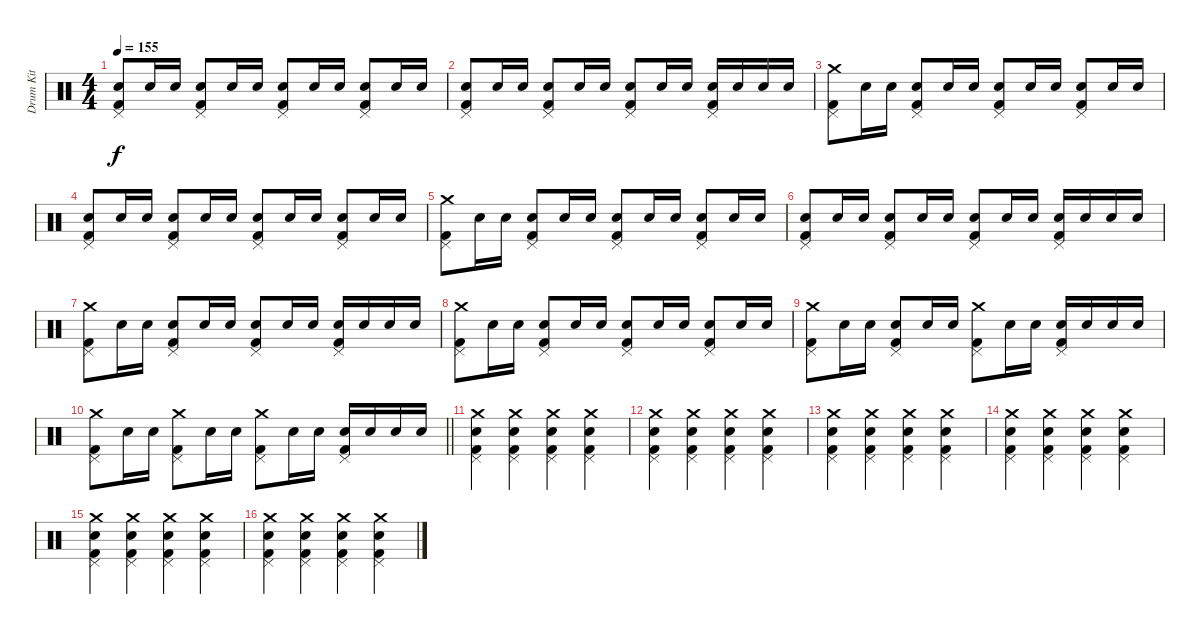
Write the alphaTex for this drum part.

\track ("Drum Kit" "Drum Kit") {instrument percussion}
\staff {score}
\articulation defaults
\ts (4 4)
\tempo 155
\clef neutral
\ks c
("Pedal Hi-Hat (hit)" "Snare (hit) 2" "Kick (hit) 2").8{dy f} "Snare (hit) 2".16 "Snare (hit) 2".16 ("Pedal Hi-Hat (hit)" "Snare (hit) 2" "Kick (hit) 2").8 "Snare (hit) 2".16 "Snare (hit) 2".16 ("Pedal Hi-Hat (hit)" "Snare (hit) 2" "Kick (hit) 2").8 "Snare (hit) 2".16 "Snare (hit) 2".16 ("Pedal Hi-Hat (hit)" "Snare (hit) 2" "Kick (hit) 2").8 "Snare (hit) 2".16 "Snare (hit) 2".16 |
("Pedal Hi-Hat (hit)" "Snare (hit) 2" "Kick (hit) 2").8 "Snare (hit) 2".16 "Snare (hit) 2".16 ("Pedal Hi-Hat (hit)" "Snare (hit) 2" "Kick (hit) 2").8 "Snare (hit) 2".16 "Snare (hit) 2".16 ("Pedal Hi-Hat (hit)" "Snare (hit) 2" "Kick (hit) 2").8 "Snare (hit) 2".16 "Snare (hit) 2".16 ("Pedal Hi-Hat (hit)" "Snare (hit) 2" "Kick (hit) 2").16 "Snare (hit) 2".16 "Snare (hit) 2".16 "Snare (hit) 2".16 |
("Crash medium (hit)" "Pedal Hi-Hat (hit)" "Kick (hit) 2").8 "Snare (hit) 2".16 "Snare (hit) 2".16 ("Pedal Hi-Hat (hit)" "Snare (hit) 2" "Kick (hit) 2").8 "Snare (hit) 2".16 "Snare (hit) 2".16 ("Pedal Hi-Hat (hit)" "Snare (hit) 2" "Kick (hit) 2").8 "Snare (hit) 2".16 "Snare (hit) 2".16 ("Pedal Hi-Hat (hit)" "Snare (hit) 2" "Kick (hit) 2").8 "Snare (hit) 2".16 "Snare (hit) 2".16 |
("Pedal Hi-Hat (hit)" "Snare (hit) 2" "Kick (hit) 2").8 "Snare (hit) 2".16 "Snare (hit) 2".16 ("Pedal Hi-Hat (hit)" "Snare (hit) 2" "Kick (hit) 2").8 "Snare (hit) 2".16 "Snare (hit) 2".16 ("Pedal Hi-Hat (hit)" "Snare (hit) 2" "Kick (hit) 2").8 "Snare (hit) 2".16 "Snare (hit) 2".16 ("Pedal Hi-Hat (hit)" "Snare (hit) 2" "Kick (hit) 2").8 "Snare (hit) 2".16 "Snare (hit) 2".16 |
("Crash medium (hit)" "Pedal Hi-Hat (hit)" "Kick (hit) 2").8 "Snare (hit) 2".16 "Snare (hit) 2".16 ("Pedal Hi-Hat (hit)" "Snare (hit) 2" "Kick (hit) 2").8 "Snare (hit) 2".16 "Snare (hit) 2".16 ("Pedal Hi-Hat (hit)" "Snare (hit) 2" "Kick (hit) 2").8 "Snare (hit) 2".16 "Snare (hit) 2".16 ("Pedal Hi-Hat (hit)" "Snare (hit) 2" "Kick (hit) 2").8 "Snare (hit) 2".16 "Snare (hit) 2".16 |
("Pedal Hi-Hat (hit)" "Snare (hit) 2" "Kick (hit) 2").8 "Snare (hit) 2".16 "Snare (hit) 2".16 ("Pedal Hi-Hat (hit)" "Snare (hit) 2" "Kick (hit) 2").8 "Snare (hit) 2".16 "Snare (hit) 2".16 ("Pedal Hi-Hat (hit)" "Snare (hit) 2" "Kick (hit) 2").8 "Snare (hit) 2".16 "Snare (hit) 2".16 ("Pedal Hi-Hat (hit)" "Snare (hit) 2" "Kick (hit) 2").16 "Snare (hit) 2".16 "Snare (hit) 2".16 "Snare (hit) 2".16 |
("Crash medium (hit)" "Pedal Hi-Hat (hit)" "Kick (hit) 2").8 "Snare (hit) 2".16 "Snare (hit) 2".16 ("Pedal Hi-Hat (hit)" "Snare (hit) 2" "Kick (hit) 2").8 "Snare (hit) 2".16 "Snare (hit) 2".16 ("Pedal Hi-Hat (hit)" "Snare (hit) 2" "Kick (hit) 2").8 "Snare (hit) 2".16 "Snare (hit) 2".16 ("Pedal Hi-Hat (hit)" "Snare (hit) 2" "Kick (hit) 2").16 "Snare (hit) 2".16 "Snare (hit) 2".16 "Snare (hit) 2".16 |
("Crash medium (hit)" "Pedal Hi-Hat (hit)" "Kick (hit) 2").8 "Snare (hit) 2".16 "Snare (hit) 2".16 ("Pedal Hi-Hat (hit)" "Snare (hit) 2" "Kick (hit) 2").8 "Snare (hit) 2".16 "Snare (hit) 2".16 ("Pedal Hi-Hat (hit)" "Snare (hit) 2" "Kick (hit) 2").8 "Snare (hit) 2".16 "Snare (hit) 2".16 ("Pedal Hi-Hat (hit)" "Snare (hit) 2" "Kick (hit) 2").8 "Snare (hit) 2".16 "Snare (hit) 2".16 |
("Crash medium (hit)" "Pedal Hi-Hat (hit)" "Kick (hit) 2").8 "Snare (hit) 2".16 "Snare (hit) 2".16 ("Pedal Hi-Hat (hit)" "Snare (hit) 2" "Kick (hit) 2").8 "Snare (hit) 2".16 "Snare (hit) 2".16 ("Crash medium (hit)" "Pedal Hi-Hat (hit)" "Kick (hit) 2").8 "Snare (hit) 2".16 "Snare (hit) 2".16 ("Pedal Hi-Hat (hit)" "Snare (hit) 2" "Kick (hit) 2").16 "Snare (hit) 2".16 "Snare (hit) 2".16 "Snare (hit) 2".16 |
\barLineRight lightlight
("Crash medium (hit)" "Pedal Hi-Hat (hit)" "Kick (hit) 2").8 "Snare (hit) 2".16 "Snare (hit) 2".16 ("Crash medium (hit)" "Pedal Hi-Hat (hit)" "Kick (hit) 2").8 "Snare (hit) 2".16 "Snare (hit) 2".16 ("Crash medium (hit)" "Pedal Hi-Hat (hit)" "Kick (hit) 2").8 "Snare (hit) 2".16 "Snare (hit) 2".16 ("Pedal Hi-Hat (hit)" "Snare (hit) 2" "Kick (hit) 2").16 "Snare (hit) 2".16 "Snare (hit) 2".16 "Snare (hit) 2".16 |
("Crash medium (hit)" "Pedal Hi-Hat (hit)" "Snare (hit) 2" "Kick (hit) 2").4{volume 11} ("Crash medium (hit)" "Pedal Hi-Hat (hit)" "Snare (hit) 2" "Kick (hit) 2").4 ("Crash medium (hit)" "Pedal Hi-Hat (hit)" "Snare (hit) 2" "Kick (hit) 2").4 ("Crash medium (hit)" "Pedal Hi-Hat (hit)" "Snare (hit) 2" "Kick (hit) 2").4 |
("Crash medium (hit)" "Pedal Hi-Hat (hit)" "Snare (hit) 2" "Kick (hit) 2").4 ("Crash medium (hit)" "Pedal Hi-Hat (hit)" "Snare (hit) 2" "Kick (hit) 2").4 ("Crash medium (hit)" "Pedal Hi-Hat (hit)" "Snare (hit) 2" "Kick (hit) 2").4 ("Crash medium (hit)" "Pedal Hi-Hat (hit)" "Snare (hit) 2" "Kick (hit) 2").4 |
("Crash medium (hit)" "Pedal Hi-Hat (hit)" "Snare (hit) 2" "Kick (hit) 2").4 ("Crash medium (hit)" "Pedal Hi-Hat (hit)" "Snare (hit) 2" "Kick (hit) 2").4 ("Crash medium (hit)" "Pedal Hi-Hat (hit)" "Snare (hit) 2" "Kick (hit) 2").4 ("Crash medium (hit)" "Pedal Hi-Hat (hit)" "Snare (hit) 2" "Kick (hit) 2").4 |
("Crash medium (hit)" "Pedal Hi-Hat (hit)" "Snare (hit) 2" "Kick (hit) 2").4 ("Crash medium (hit)" "Pedal Hi-Hat (hit)" "Snare (hit) 2" "Kick (hit) 2").4 ("Crash medium (hit)" "Pedal Hi-Hat (hit)" "Snare (hit) 2" "Kick (hit) 2").4 ("Crash medium (hit)" "Pedal Hi-Hat (hit)" "Snare (hit) 2" "Kick (hit) 2").4 |
("Crash medium (hit)" "Pedal Hi-Hat (hit)" "Snare (hit) 2" "Kick (hit) 2").4 ("Crash medium (hit)" "Pedal Hi-Hat (hit)" "Snare (hit) 2" "Kick (hit) 2").4 ("Crash medium (hit)" "Pedal Hi-Hat (hit)" "Snare (hit) 2" "Kick (hit) 2").4 ("Crash medium (hit)" "Pedal Hi-Hat (hit)" "Snare (hit) 2" "Kick (hit) 2").4 |
("Crash medium (hit)" "Pedal Hi-Hat (hit)" "Snare (hit) 2" "Kick (hit) 2").4 ("Crash medium (hit)" "Pedal Hi-Hat (hit)" "Snare (hit) 2" "Kick (hit) 2").4 ("Crash medium (hit)" "Pedal Hi-Hat (hit)" "Snare (hit) 2" "Kick (hit) 2").4 ("Crash medium (hit)" "Pedal Hi-Hat (hit)" "Snare (hit) 2" "Kick (hit) 2").4
